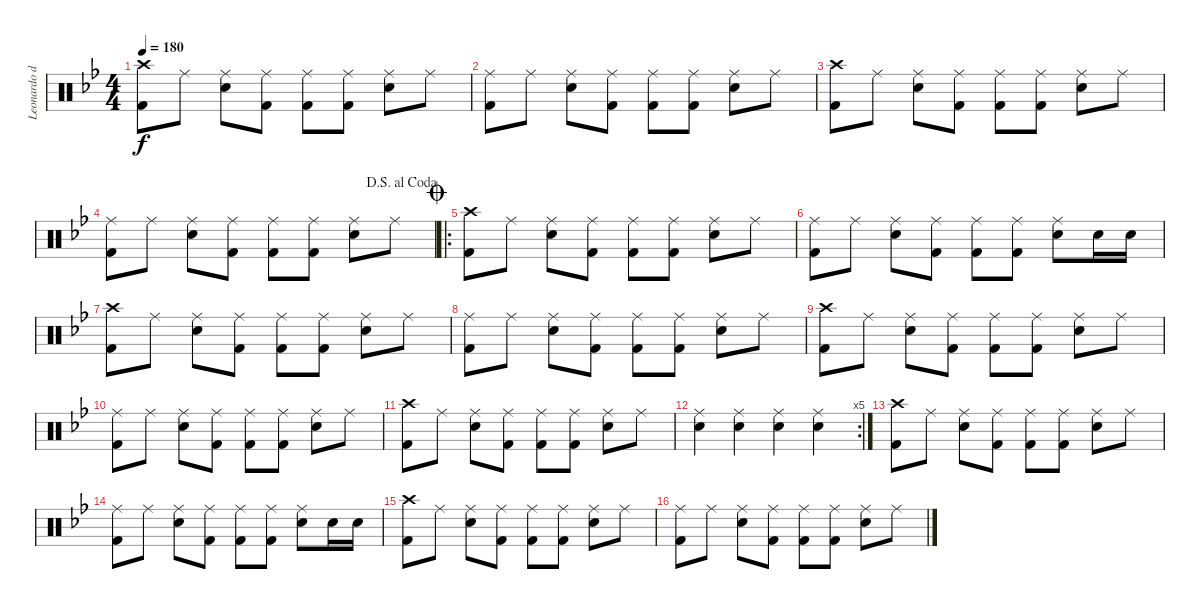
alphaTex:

\track ("Leonardo de Cecco" "Leonardo d") {instrument percussion}
\staff {score}
\articulation defaults
\ts (4 4)
\tempo 180
\clef neutral
\ks bb
("Crash high (hit)" "Kick (hit) 2").8{dy f} "Ride (middle)".8 ("Ride (middle)" "Snare (hit) 2").8 ("Ride (middle)" "Kick (hit) 2").8 ("Ride (middle)" "Kick (hit) 2").8 ("Ride (middle)" "Kick (hit) 2").8 ("Ride (middle)" "Snare (hit) 2").8 "Ride (middle)".8 |
("Ride (middle)" "Kick (hit) 2").8 "Ride (middle)".8 ("Ride (middle)" "Snare (hit) 2").8 ("Ride (middle)" "Kick (hit) 2").8 ("Ride (middle)" "Kick (hit) 2").8 ("Ride (middle)" "Kick (hit) 2").8 ("Ride (middle)" "Snare (hit) 2").8 "Ride (middle)".8 |
("Crash high (hit)" "Kick (hit) 2").8 "Ride (middle)".8 ("Ride (middle)" "Snare (hit) 2").8 ("Ride (middle)" "Kick (hit) 2").8 ("Ride (middle)" "Kick (hit) 2").8 ("Ride (middle)" "Kick (hit) 2").8 ("Ride (middle)" "Snare (hit) 2").8 "Ride (middle)".8 |
\jump dalsegnoalcoda
("Ride (middle)" "Kick (hit) 2").8 "Ride (middle)".8 ("Ride (middle)" "Snare (hit) 2").8 ("Ride (middle)" "Kick (hit) 2").8 ("Ride (middle)" "Kick (hit) 2").8 ("Ride (middle)" "Kick (hit) 2").8 ("Ride (middle)" "Snare (hit) 2").8 "Ride (middle)".8 |
\ro
\jump coda
("Crash high (hit)" "Kick (hit) 2").8 "Ride (middle)".8 ("Ride (middle)" "Snare (hit) 2").8 ("Ride (middle)" "Kick (hit) 2").8 ("Ride (middle)" "Kick (hit) 2").8 ("Ride (middle)" "Kick (hit) 2").8 ("Ride (middle)" "Snare (hit) 2").8 "Ride (middle)".8 |
("Ride (middle)" "Kick (hit) 2").8 "Ride (middle)".8 ("Ride (middle)" "Snare (hit) 2").8 ("Ride (middle)" "Kick (hit) 2").8 ("Ride (middle)" "Kick (hit) 2").8 ("Ride (middle)" "Kick (hit) 2").8 ("Ride (middle)" "Snare (hit) 2").8 "Snare (hit) 2".16 "Snare (hit) 2".16 |
("Crash high (hit)" "Kick (hit) 2").8 "Ride (middle)".8 ("Ride (middle)" "Snare (hit) 2").8 ("Ride (middle)" "Kick (hit) 2").8 ("Ride (middle)" "Kick (hit) 2").8 ("Ride (middle)" "Kick (hit) 2").8 ("Ride (middle)" "Snare (hit) 2").8 "Ride (middle)".8 |
("Ride (middle)" "Kick (hit) 2").8 "Ride (middle)".8 ("Ride (middle)" "Snare (hit) 2").8 ("Ride (middle)" "Kick (hit) 2").8 ("Ride (middle)" "Kick (hit) 2").8 ("Ride (middle)" "Kick (hit) 2").8 ("Ride (middle)" "Snare (hit) 2").8 "Ride (middle)".8 |
("Crash high (hit)" "Kick (hit) 2").8 "Ride (middle)".8 ("Ride (middle)" "Snare (hit) 2").8 ("Ride (middle)" "Kick (hit) 2").8 ("Ride (middle)" "Kick (hit) 2").8 ("Ride (middle)" "Kick (hit) 2").8 ("Ride (middle)" "Snare (hit) 2").8 "Ride (middle)".8 |
("Ride (middle)" "Kick (hit) 2").8 "Ride (middle)".8 ("Ride (middle)" "Snare (hit) 2").8 ("Ride (middle)" "Kick (hit) 2").8 ("Ride (middle)" "Kick (hit) 2").8 ("Ride (middle)" "Kick (hit) 2").8 ("Ride (middle)" "Snare (hit) 2").8 "Ride (middle)".8 |
("Crash high (hit)" "Kick (hit) 2").8 "Ride (middle)".8 ("Ride (middle)" "Snare (hit) 2").8 ("Ride (middle)" "Kick (hit) 2").8 ("Ride (middle)" "Kick (hit) 2").8 ("Ride (middle)" "Kick (hit) 2").8 ("Ride (middle)" "Snare (hit) 2").8 "Ride (middle)".8 |
\rc 5
("Ride (middle)" "Snare (hit) 2").4 ("Ride (middle)" "Snare (hit) 2").4 ("Ride (middle)" "Snare (hit) 2").4 ("Ride (middle)" "Snare (hit) 2").4 |
("Crash high (hit)" "Kick (hit) 2").8 "Ride (middle)".8 ("Ride (middle)" "Snare (hit) 2").8 ("Ride (middle)" "Kick (hit) 2").8 ("Ride (middle)" "Kick (hit) 2").8 ("Ride (middle)" "Kick (hit) 2").8 ("Ride (middle)" "Snare (hit) 2").8 "Ride (middle)".8 |
("Ride (middle)" "Kick (hit) 2").8 "Ride (middle)".8 ("Ride (middle)" "Snare (hit) 2").8 ("Ride (middle)" "Kick (hit) 2").8 ("Ride (middle)" "Kick (hit) 2").8 ("Ride (middle)" "Kick (hit) 2").8 ("Ride (middle)" "Snare (hit) 2").8 "Snare (hit) 2".16 "Snare (hit) 2".16 |
("Crash high (hit)" "Kick (hit) 2").8 "Ride (middle)".8 ("Ride (middle)" "Snare (hit) 2").8 ("Ride (middle)" "Kick (hit) 2").8 ("Ride (middle)" "Kick (hit) 2").8 ("Ride (middle)" "Kick (hit) 2").8 ("Ride (middle)" "Snare (hit) 2").8 "Ride (middle)".8 |
("Ride (middle)" "Kick (hit) 2").8 "Ride (middle)".8 ("Ride (middle)" "Snare (hit) 2").8 ("Ride (middle)" "Kick (hit) 2").8 ("Ride (middle)" "Kick (hit) 2").8 ("Ride (middle)" "Kick (hit) 2").8 ("Ride (middle)" "Snare (hit) 2").8 "Ride (middle)".8
